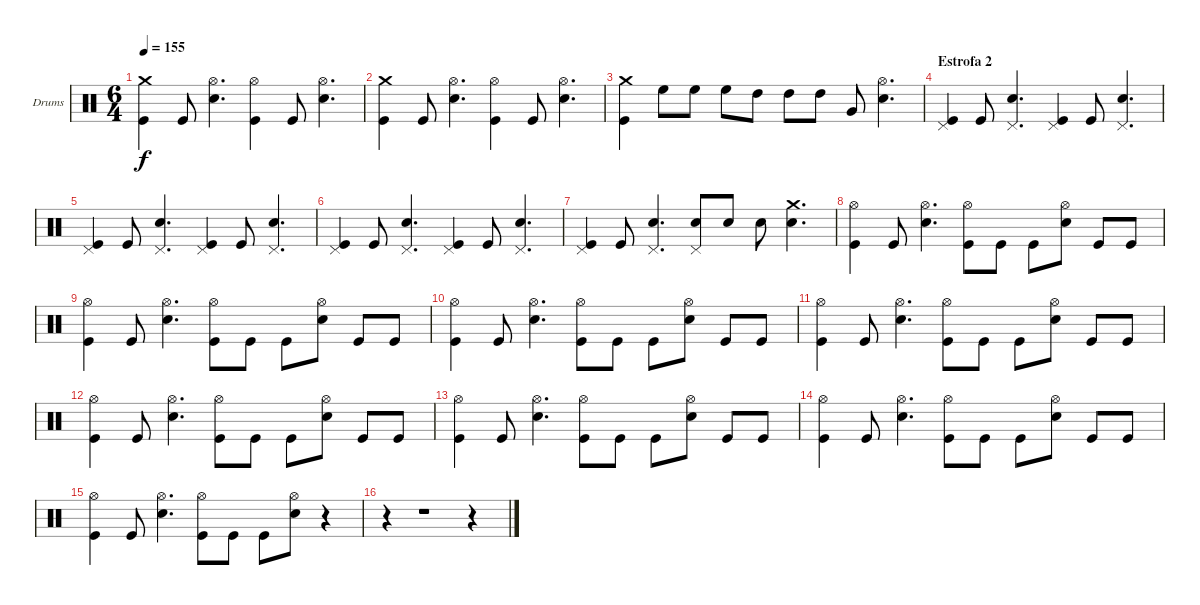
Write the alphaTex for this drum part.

\defaultSystemsLayout 4
\bracketExtendMode groupsimilarinstruments
\firstSystemTrackNameOrientation horizontal
\otherSystemsTrackNameOrientation horizontal
\track ("Drumkit" "Drums") {instrument percussion}
\staff {score}
\articulation defaults
\ts (6 4)
\tempo 155
\clef neutral
\ks c
("Crash medium (hit)" "Kick (hit)").4{dy f} "Kick (hit)".8 ("Hi-Hat (open)" "Snare (hit) 2").4{d} ("Hi-Hat (open)" "Kick (hit)").4 "Kick (hit)".8 ("Hi-Hat (open)" "Snare (hit) 2").4{d} |
("Crash medium (hit)" "Kick (hit)").4 "Kick (hit)".8 ("Hi-Hat (open)" "Snare (hit) 2").4{d} ("Hi-Hat (open)" "Kick (hit)").4 "Kick (hit)".8 ("Hi-Hat (open)" "Snare (hit) 2").4{d} |
("Crash medium (hit)" "Kick (hit)").4 "High Floor Tom (hit)".8 "High Floor Tom (hit)".8 "High Floor Tom (hit)".8 "High Tom (hit)".8 "High Tom (hit)".8 "High Tom (hit)".8 "Very Low Tom (hit)".8 ("Hi-Hat (open)" "Snare (hit) 2").4{d} |
\section ("" "Estrofa 2")
("Kick (hit)" "Pedal Hi-Hat (hit)").4 "Kick (hit)".8 ("Snare (hit) 2" "Pedal Hi-Hat (hit)").4{d} ("Kick (hit)" "Pedal Hi-Hat (hit)").4 "Kick (hit)".8 ("Snare (hit) 2" "Pedal Hi-Hat (hit)").4{d} |
("Kick (hit)" "Pedal Hi-Hat (hit)").4 "Kick (hit)".8 ("Snare (hit) 2" "Pedal Hi-Hat (hit)").4{d} ("Kick (hit)" "Pedal Hi-Hat (hit)").4 "Kick (hit)".8 ("Snare (hit) 2" "Pedal Hi-Hat (hit)").4{d} |
("Kick (hit)" "Pedal Hi-Hat (hit)").4 "Kick (hit)".8 ("Snare (hit) 2" "Pedal Hi-Hat (hit)").4{d} ("Kick (hit)" "Pedal Hi-Hat (hit)").4 "Kick (hit)".8 ("Snare (hit) 2" "Pedal Hi-Hat (hit)").4{d} |
("Kick (hit)" "Pedal Hi-Hat (hit)").4 "Kick (hit)".8 ("Snare (hit) 2" "Pedal Hi-Hat (hit)").4{d} ("Snare (hit) 2" "Pedal Hi-Hat (hit)").8 "Snare (hit) 2".8 "Snare (hit) 2".8 ("Crash medium (hit)" "Snare (hit) 2").4{d} |
("Hi-Hat (open)" "Kick (hit)").4 "Kick (hit)".8 ("Hi-Hat (open)" "Snare (hit) 2").4{d} ("Hi-Hat (open)" "Kick (hit)").8 "Kick (hit)".8 "Kick (hit)".8 ("Hi-Hat (open)" "Snare (hit) 2").8 "Kick (hit)".8 "Kick (hit)".8 |
("Hi-Hat (open)" "Kick (hit)").4 "Kick (hit)".8 ("Hi-Hat (open)" "Snare (hit) 2").4{d} ("Hi-Hat (open)" "Kick (hit)").8 "Kick (hit)".8 "Kick (hit)".8 ("Hi-Hat (open)" "Snare (hit) 2").8 "Kick (hit)".8 "Kick (hit)".8 |
("Hi-Hat (open)" "Kick (hit)").4 "Kick (hit)".8 ("Hi-Hat (open)" "Snare (hit) 2").4{d} ("Hi-Hat (open)" "Kick (hit)").8 "Kick (hit)".8 "Kick (hit)".8 ("Hi-Hat (open)" "Snare (hit) 2").8 "Kick (hit)".8 "Kick (hit)".8 |
("Hi-Hat (open)" "Kick (hit)").4 "Kick (hit)".8 ("Hi-Hat (open)" "Snare (hit) 2").4{d} ("Hi-Hat (open)" "Kick (hit)").8 "Kick (hit)".8 "Kick (hit)".8 ("Hi-Hat (open)" "Snare (hit) 2").8 "Kick (hit)".8 "Kick (hit)".8 |
("Hi-Hat (open)" "Kick (hit)").4 "Kick (hit)".8 ("Hi-Hat (open)" "Snare (hit) 2").4{d} ("Hi-Hat (open)" "Kick (hit)").8 "Kick (hit)".8 "Kick (hit)".8 ("Hi-Hat (open)" "Snare (hit) 2").8 "Kick (hit)".8 "Kick (hit)".8 |
("Hi-Hat (open)" "Kick (hit)").4 "Kick (hit)".8 ("Hi-Hat (open)" "Snare (hit) 2").4{d} ("Hi-Hat (open)" "Kick (hit)").8 "Kick (hit)".8 "Kick (hit)".8 ("Hi-Hat (open)" "Snare (hit) 2").8 "Kick (hit)".8 "Kick (hit)".8 |
("Hi-Hat (open)" "Kick (hit)").4 "Kick (hit)".8 ("Hi-Hat (open)" "Snare (hit) 2").4{d} ("Hi-Hat (open)" "Kick (hit)").8 "Kick (hit)".8 "Kick (hit)".8 ("Hi-Hat (open)" "Snare (hit) 2").8 "Kick (hit)".8 "Kick (hit)".8 |
("Hi-Hat (open)" "Kick (hit)").4 "Kick (hit)".8 ("Hi-Hat (open)" "Snare (hit) 2").4{d} ("Hi-Hat (open)" "Kick (hit)").8 "Kick (hit)".8 "Kick (hit)".8 ("Hi-Hat (open)" "Snare (hit) 2").8 r.4 |
r.4 r.1 r.4
